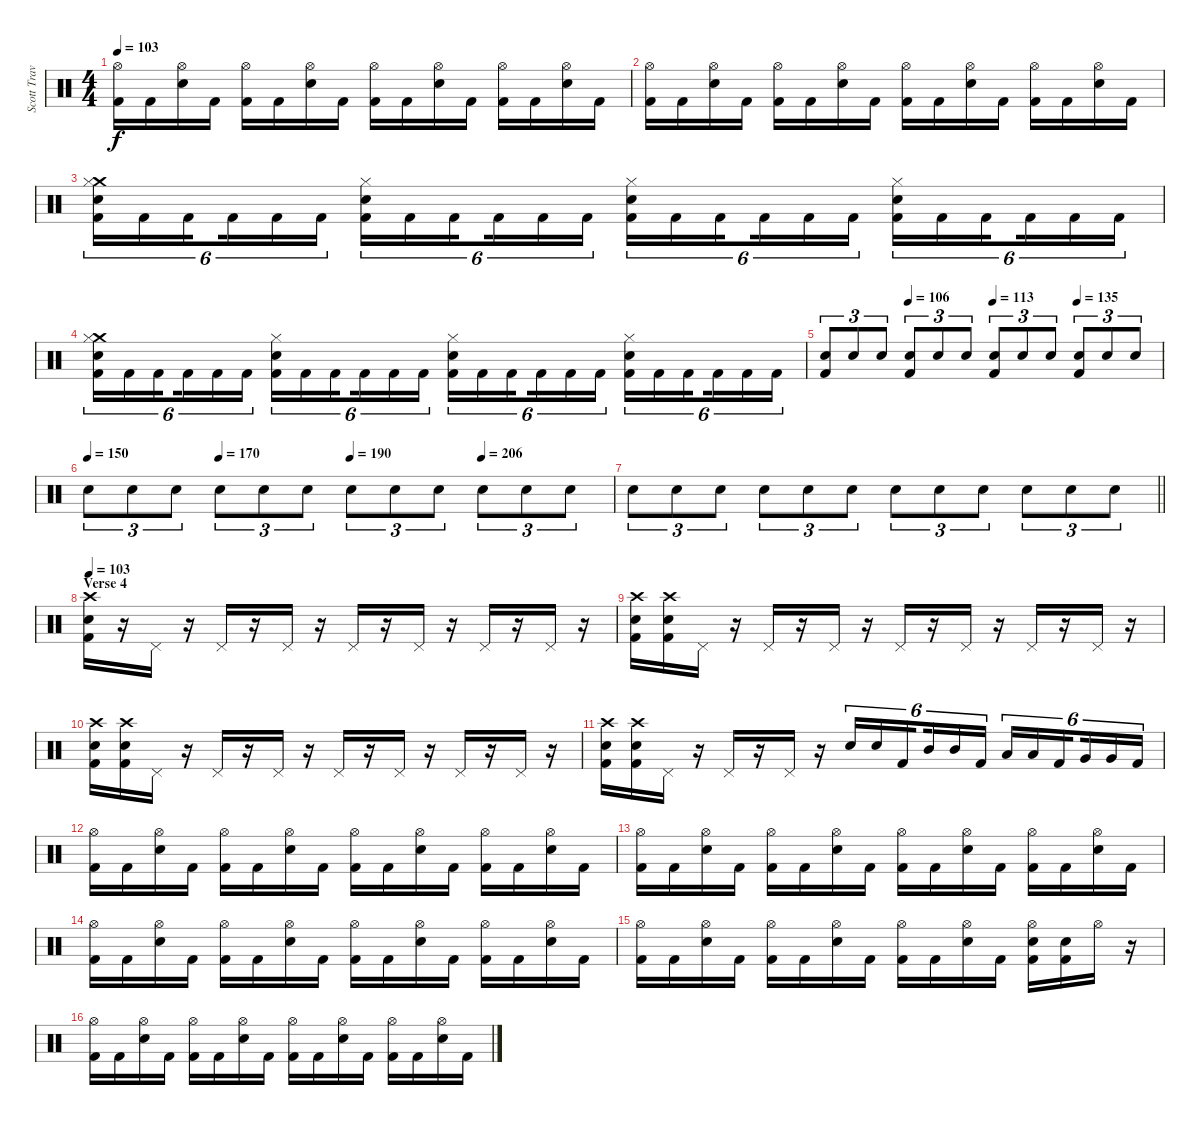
\track ("Scott Travis" "Scott Trav") {instrument percussion}
\staff {score}
\articulation defaults
\ts (4 4)
\tempo 103
\clef neutral
\ks c
("Hi-Hat (open)" "Kick (hit) 2").16{dy f} "Kick (hit) 2".16 ("Hi-Hat (open)" "Snare (hit) 2").16 "Kick (hit) 2".16 ("Hi-Hat (open)" "Kick (hit) 2").16 "Kick (hit) 2".16 ("Hi-Hat (open)" "Snare (hit) 2").16 "Kick (hit) 2".16 ("Hi-Hat (open)" "Kick (hit) 2").16 "Kick (hit) 2".16 ("Hi-Hat (open)" "Snare (hit) 2").16 "Kick (hit) 2".16 ("Hi-Hat (open)" "Kick (hit) 2").16 "Kick (hit) 2".16 ("Hi-Hat (open)" "Snare (hit) 2").16 "Kick (hit) 2".16 |
("Hi-Hat (open)" "Kick (hit) 2").16 "Kick (hit) 2".16 ("Hi-Hat (open)" "Snare (hit) 2").16 "Kick (hit) 2".16 ("Hi-Hat (open)" "Kick (hit) 2").16 "Kick (hit) 2".16 ("Hi-Hat (open)" "Snare (hit) 2").16 "Kick (hit) 2".16 ("Hi-Hat (open)" "Kick (hit) 2").16 "Kick (hit) 2".16 ("Hi-Hat (open)" "Snare (hit) 2").16 "Kick (hit) 2".16 ("Hi-Hat (open)" "Kick (hit) 2").16 "Kick (hit) 2".16 ("Hi-Hat (open)" "Snare (hit) 2").16 "Kick (hit) 2".16 |
("Crash medium (hit)" "Hi-Hat (closed)" "Snare (hit) 2" "Kick (hit) 2").16{tu (6 4)} "Kick (hit) 2".16{tu (6 4)} "Kick (hit) 2".16{tu (6 4) beam splitsecondary} "Kick (hit) 2".16{tu (6 4)} "Kick (hit) 2".16{tu (6 4)} "Kick (hit) 2".16{tu (6 4)} ("Hi-Hat (closed)" "Snare (hit) 2" "Kick (hit) 2").16{tu (6 4)} "Kick (hit) 2".16{tu (6 4)} "Kick (hit) 2".16{tu (6 4) beam splitsecondary} "Kick (hit) 2".16{tu (6 4)} "Kick (hit) 2".16{tu (6 4)} "Kick (hit) 2".16{tu (6 4)} ("Hi-Hat (closed)" "Snare (hit) 2" "Kick (hit) 2").16{tu (6 4)} "Kick (hit) 2".16{tu (6 4)} "Kick (hit) 2".16{tu (6 4) beam splitsecondary} "Kick (hit) 2".16{tu (6 4)} "Kick (hit) 2".16{tu (6 4)} "Kick (hit) 2".16{tu (6 4)} ("Hi-Hat (closed)" "Snare (hit) 2" "Kick (hit) 2").16{tu (6 4)} "Kick (hit) 2".16{tu (6 4)} "Kick (hit) 2".16{tu (6 4) beam splitsecondary} "Kick (hit) 2".16{tu (6 4)} "Kick (hit) 2".16{tu (6 4)} "Kick (hit) 2".16{tu (6 4)} |
("Crash medium (hit)" "Hi-Hat (closed)" "Snare (hit) 2" "Kick (hit) 2").16{tu (6 4)} "Kick (hit) 2".16{tu (6 4)} "Kick (hit) 2".16{tu (6 4) beam splitsecondary} "Kick (hit) 2".16{tu (6 4)} "Kick (hit) 2".16{tu (6 4)} "Kick (hit) 2".16{tu (6 4)} ("Hi-Hat (closed)" "Snare (hit) 2" "Kick (hit) 2").16{tu (6 4)} "Kick (hit) 2".16{tu (6 4)} "Kick (hit) 2".16{tu (6 4) beam splitsecondary} "Kick (hit) 2".16{tu (6 4)} "Kick (hit) 2".16{tu (6 4)} "Kick (hit) 2".16{tu (6 4)} ("Hi-Hat (closed)" "Snare (hit) 2" "Kick (hit) 2").16{tu (6 4)} "Kick (hit) 2".16{tu (6 4)} "Kick (hit) 2".16{tu (6 4) beam splitsecondary} "Kick (hit) 2".16{tu (6 4)} "Kick (hit) 2".16{tu (6 4)} "Kick (hit) 2".16{tu (6 4)} ("Hi-Hat (closed)" "Snare (hit) 2" "Kick (hit) 2").16{tu (6 4)} "Kick (hit) 2".16{tu (6 4)} "Kick (hit) 2".16{tu (6 4) beam splitsecondary} "Kick (hit) 2".16{tu (6 4)} "Kick (hit) 2".16{tu (6 4)} "Kick (hit) 2".16{tu (6 4)} |
\tempo (106 0.25)
\tempo (113 0.5)
\tempo (135 0.75)
("Kick (hit) 2" "Snare (hit) 2").8{tu (3 2)} "Snare (hit) 2".8{tu (3 2)} "Snare (hit) 2".8{tu (3 2)} ("Kick (hit) 2" "Snare (hit) 2").8{tu (3 2)} "Snare (hit) 2".8{tu (3 2)} "Snare (hit) 2".8{tu (3 2)} ("Kick (hit) 2" "Snare (hit) 2").8{tu (3 2)} "Snare (hit) 2".8{tu (3 2)} "Snare (hit) 2".8{tu (3 2)} ("Kick (hit) 2" "Snare (hit) 2").8{tu (3 2)} "Snare (hit) 2".8{tu (3 2)} "Snare (hit) 2".8{tu (3 2)} |
\tempo 150
\tempo (170 0.25)
\tempo (190 0.5)
\tempo (206 0.75)
"Snare (hit) 2".8{tu (3 2)} "Snare (hit) 2".8{tu (3 2)} "Snare (hit) 2".8{tu (3 2)} "Snare (hit) 2".8{tu (3 2)} "Snare (hit) 2".8{tu (3 2)} "Snare (hit) 2".8{tu (3 2)} "Snare (hit) 2".8{tu (3 2)} "Snare (hit) 2".8{tu (3 2)} "Snare (hit) 2".8{tu (3 2)} "Snare (hit) 2".8{tu (3 2)} "Snare (hit) 2".8{tu (3 2)} "Snare (hit) 2".8{tu (3 2)} |
\barLineRight lightlight "Snare (hit) 2".8{tu (3 2)} "Snare (hit) 2".8{tu (3 2)} "Snare (hit) 2".8{tu (3 2)} "Snare (hit) 2".8{tu (3 2)} "Snare (hit) 2".8{tu (3 2)} "Snare (hit) 2".8{tu (3 2)} "Snare (hit) 2".8{tu (3 2)} "Snare (hit) 2".8{tu (3 2)} "Snare (hit) 2".8{tu (3 2)} "Snare (hit) 2".8{tu (3 2)} "Snare (hit) 2".8{tu (3 2)} "Snare (hit) 2".8{tu (3 2)}
|
\section ("" "Verse 4")
\tempo 103
("Snare (hit) 2" "Crash high (hit)" "Kick (hit) 2").16 r.16 "Pedal Hi-Hat (hit)".16 r.16 "Pedal Hi-Hat (hit)".16 r.16 "Pedal Hi-Hat (hit)".16 r.16 "Pedal Hi-Hat (hit)".16 r.16 "Pedal Hi-Hat (hit)".16 r.16 "Pedal Hi-Hat (hit)".16 r.16 "Pedal Hi-Hat (hit)".16 r.16 |
("Crash high (hit)" "Kick (hit) 2" "Snare (hit) 2").16 ("Crash high (hit)" "Kick (hit) 2" "Snare (hit) 2").16 "Pedal Hi-Hat (hit)".16 r.16 "Pedal Hi-Hat (hit)".16 r.16 "Pedal Hi-Hat (hit)".16 r.16 "Pedal Hi-Hat (hit)".16 r.16 "Pedal Hi-Hat (hit)".16 r.16 "Pedal Hi-Hat (hit)".16 r.16 "Pedal Hi-Hat (hit)".16 r.16 |
("Crash high (hit)" "Kick (hit) 2" "Snare (hit) 2").16 ("Crash high (hit)" "Kick (hit) 2" "Snare (hit) 2").16 "Pedal Hi-Hat (hit)".16 r.16 "Pedal Hi-Hat (hit)".16 r.16 "Pedal Hi-Hat (hit)".16 r.16 "Pedal Hi-Hat (hit)".16 r.16 "Pedal Hi-Hat (hit)".16 r.16 "Pedal Hi-Hat (hit)".16 r.16 "Pedal Hi-Hat (hit)".16 r.16 |
("Crash high (hit)" "Kick (hit) 2" "Snare (hit) 2").16 ("Crash high (hit)" "Kick (hit) 2" "Snare (hit) 2").16 "Pedal Hi-Hat (hit)".16 r.16 "Pedal Hi-Hat (hit)".16 r.16 "Pedal Hi-Hat (hit)".16 r.16 "Snare (hit) 2".16{tu (6 4)} "Snare (hit) 2".16{tu (6 4)} "Kick (hit) 2".16{tu (6 4) beam splitsecondary} "Mid Tom (hit)".16{tu (6 4)} "Mid Tom (hit)".16{tu (6 4)} "Kick (hit) 2".16{tu (6 4)} "Low Tom (hit)".16{tu (6 4)} "Low Tom (hit)".16{tu (6 4)} "Kick (hit) 2".16{tu (6 4) beam splitsecondary} "Very Low Tom (hit)".16{tu (6 4)} "Very Low Tom (hit)".16{tu (6 4)} "Kick (hit) 2".16{tu (6 4)} |
("Hi-Hat (open)" "Kick (hit) 2").16 "Kick (hit) 2".16 ("Hi-Hat (open)" "Snare (hit) 2").16 "Kick (hit) 2".16 ("Hi-Hat (open)" "Kick (hit) 2").16 "Kick (hit) 2".16 ("Hi-Hat (open)" "Snare (hit) 2").16 "Kick (hit) 2".16 ("Hi-Hat (open)" "Kick (hit) 2").16 "Kick (hit) 2".16 ("Hi-Hat (open)" "Snare (hit) 2").16 "Kick (hit) 2".16 ("Hi-Hat (open)" "Kick (hit) 2").16 "Kick (hit) 2".16 ("Hi-Hat (open)" "Snare (hit) 2").16 "Kick (hit) 2".16 |
("Hi-Hat (open)" "Kick (hit) 2").16 "Kick (hit) 2".16 ("Hi-Hat (open)" "Snare (hit) 2").16 "Kick (hit) 2".16 ("Hi-Hat (open)" "Kick (hit) 2").16 "Kick (hit) 2".16 ("Hi-Hat (open)" "Snare (hit) 2").16 "Kick (hit) 2".16 ("Hi-Hat (open)" "Kick (hit) 2").16 "Kick (hit) 2".16 ("Hi-Hat (open)" "Snare (hit) 2").16 "Kick (hit) 2".16 ("Hi-Hat (open)" "Kick (hit) 2").16 "Kick (hit) 2".16 ("Hi-Hat (open)" "Snare (hit) 2").16 "Kick (hit) 2".16 |
("Hi-Hat (open)" "Kick (hit) 2").16 "Kick (hit) 2".16 ("Hi-Hat (open)" "Snare (hit) 2").16 "Kick (hit) 2".16 ("Hi-Hat (open)" "Kick (hit) 2").16 "Kick (hit) 2".16 ("Hi-Hat (open)" "Snare (hit) 2").16 "Kick (hit) 2".16 ("Hi-Hat (open)" "Kick (hit) 2").16 "Kick (hit) 2".16 ("Hi-Hat (open)" "Snare (hit) 2").16 "Kick (hit) 2".16 ("Hi-Hat (open)" "Kick (hit) 2").16 "Kick (hit) 2".16 ("Hi-Hat (open)" "Snare (hit) 2").16 "Kick (hit) 2".16 |
("Hi-Hat (open)" "Kick (hit) 2").16 "Kick (hit) 2".16 ("Hi-Hat (open)" "Snare (hit) 2").16 "Kick (hit) 2".16 ("Hi-Hat (open)" "Kick (hit) 2").16 "Kick (hit) 2".16 ("Hi-Hat (open)" "Snare (hit) 2").16 "Kick (hit) 2".16 ("Hi-Hat (open)" "Kick (hit) 2").16 "Kick (hit) 2".16 ("Hi-Hat (open)" "Snare (hit) 2").16 "Kick (hit) 2".16 ("Hi-Hat (open)" "Snare (hit) 2" "Kick (hit) 2").16 ("Snare (hit) 2" "Kick (hit) 2").16 "Hi-Hat (open)".16 r.16 |
("Hi-Hat (open)" "Kick (hit) 2").16 "Kick (hit) 2".16 ("Hi-Hat (open)" "Snare (hit) 2").16 "Kick (hit) 2".16 ("Hi-Hat (open)" "Kick (hit) 2").16 "Kick (hit) 2".16 ("Hi-Hat (open)" "Snare (hit) 2").16 "Kick (hit) 2".16 ("Hi-Hat (open)" "Kick (hit) 2").16 "Kick (hit) 2".16 ("Hi-Hat (open)" "Snare (hit) 2").16 "Kick (hit) 2".16 ("Hi-Hat (open)" "Kick (hit) 2").16 "Kick (hit) 2".16 ("Hi-Hat (open)" "Snare (hit) 2").16 "Kick (hit) 2".16
